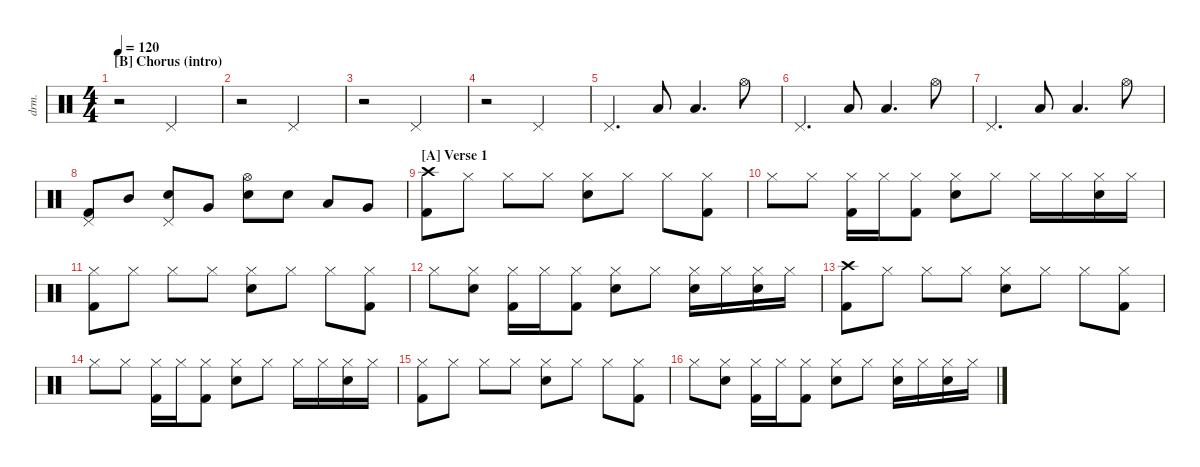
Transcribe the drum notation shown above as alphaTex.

\defaultSystemsLayout 4
\hideDynamics
\bracketExtendMode nobrackets
\track ("Drumkit" "drm.") {instrument percussion}
\staff {score}
\articulation defaults
\ts (4 4)
\section ("B" "Chorus (intro)")
\tempo 120
\clef neutral
\ks c
r.2{dy mf beam Down} "Pedal Hi-Hat (hit)".2{beam Up} |
r.2{beam Down} "Pedal Hi-Hat (hit)".2{beam Up} |
r.2{beam Down} "Pedal Hi-Hat (hit)".2{beam Up} |
r.2{beam Down} "Pedal Hi-Hat (hit)".2{beam Up} |
"Pedal Hi-Hat (hit)".4{d beam Up} "Low Floor Tom (hit)".8{beam Up} "Low Floor Tom (hit)".4{d beam Up} "Hi-Hat (open)".8{beam Down} |
"Pedal Hi-Hat (hit)".4{d beam Up} "Low Floor Tom (hit)".8{beam Up} "Low Floor Tom (hit)".4{d beam Up} "Hi-Hat (open)".8{beam Down} |
"Pedal Hi-Hat (hit)".4{d beam Up} "Low Floor Tom (hit)".8{beam Up} "Low Floor Tom (hit)".4{d beam Up} "Hi-Hat (open)".8{beam Down} |
("Kick (hit) 2" "Pedal Hi-Hat (hit)").8{beam Up} "Mid Tom (hit)".8{beam Up} ("Snare (hit) 2" "Pedal Hi-Hat (hit)").8{beam Up} "Very Low Tom (hit)".8{beam Up} ("Snare (hit) 2" "Hi-Hat (open)").8{beam Down} "Snare (hit) 2".8{beam Down} "Low Tom (hit)".8{beam Up} "Very Low Tom (hit)".8{beam Up} |
\beaming (8 2 2 2 2)
\section ("A" "Verse 1")
("Crash high (hit)" "Kick (hit) 2").8{beam Down} "Hi-Hat (closed)".8{beam Down} "Hi-Hat (closed)".8{beam Down} "Hi-Hat (closed)".8{beam Down} ("Hi-Hat (closed)" "Snare (hit) 2").8{beam Down} "Hi-Hat (closed)".8{beam Down} "Hi-Hat (closed)".8{beam Down} ("Hi-Hat (closed)" "Kick (hit) 2").8{beam Down} |
"Hi-Hat (closed)".8{beam Down} "Hi-Hat (closed)".8{beam Down} ("Hi-Hat (closed)" "Kick (hit) 2").16{beam Down} "Hi-Hat (closed)".16{beam Down} ("Hi-Hat (closed)" "Kick (hit) 2").8{beam Down} ("Hi-Hat (closed)" "Snare (hit) 2").8{beam Down} "Hi-Hat (closed)".8{beam Down} "Hi-Hat (closed)".16{beam Down} "Hi-Hat (closed)".16{beam Down} ("Hi-Hat (closed)" "Snare (hit) 2").16{dy p beam Down} "Hi-Hat (closed)".16{beam Down} |
("Hi-Hat (closed)" "Kick (hit) 2").8{dy mf beam Down} "Hi-Hat (closed)".8{beam Down} "Hi-Hat (closed)".8{beam Down} "Hi-Hat (closed)".8{beam Down} ("Hi-Hat (closed)" "Snare (hit) 2").8{beam Down} "Hi-Hat (closed)".8{beam Down} "Hi-Hat (closed)".8{beam Down} ("Hi-Hat (closed)" "Kick (hit) 2").8{beam Down} |
"Hi-Hat (closed)".8{beam Down} ("Hi-Hat (closed)" "Snare (hit) 2").8{beam Down} ("Hi-Hat (closed)" "Kick (hit) 2").16{beam Down} "Hi-Hat (closed)".16{beam Down} ("Hi-Hat (closed)" "Kick (hit) 2").8{beam Down} ("Hi-Hat (closed)" "Snare (hit) 2").8{beam Down} "Hi-Hat (closed)".8{beam Down} ("Hi-Hat (closed)" "Snare (hit) 2").16{beam Down} "Hi-Hat (closed)".16{beam Down} ("Hi-Hat (closed)" "Snare (hit) 2").16{dy p beam Down} "Hi-Hat (closed)".16{beam Down} |
("Crash high (hit)" "Kick (hit) 2").8{dy mf beam Down} "Hi-Hat (closed)".8{beam Down} "Hi-Hat (closed)".8{beam Down} "Hi-Hat (closed)".8{beam Down} ("Hi-Hat (closed)" "Snare (hit) 2").8{beam Down} "Hi-Hat (closed)".8{beam Down} "Hi-Hat (closed)".8{beam Down} ("Hi-Hat (closed)" "Kick (hit) 2").8{beam Down} |
"Hi-Hat (closed)".8{beam Down} "Hi-Hat (closed)".8{beam Down} ("Hi-Hat (closed)" "Kick (hit) 2").16{beam Down} "Hi-Hat (closed)".16{beam Down} ("Hi-Hat (closed)" "Kick (hit) 2").8{beam Down} ("Hi-Hat (closed)" "Snare (hit) 2").8{beam Down} "Hi-Hat (closed)".8{beam Down} "Hi-Hat (closed)".16{beam Down} "Hi-Hat (closed)".16{beam Down} ("Hi-Hat (closed)" "Snare (hit) 2").16{dy p beam Down} "Hi-Hat (closed)".16{beam Down} |
("Hi-Hat (closed)" "Kick (hit) 2").8{dy mf beam Down} "Hi-Hat (closed)".8{beam Down} "Hi-Hat (closed)".8{beam Down} "Hi-Hat (closed)".8{beam Down} ("Hi-Hat (closed)" "Snare (hit) 2").8{beam Down} "Hi-Hat (closed)".8{beam Down} "Hi-Hat (closed)".8{beam Down} ("Hi-Hat (closed)" "Kick (hit) 2").8{beam Down} |
"Hi-Hat (closed)".8{beam Down} ("Hi-Hat (closed)" "Snare (hit) 2").8{beam Down} ("Hi-Hat (closed)" "Kick (hit) 2").16{beam Down} "Hi-Hat (closed)".16{beam Down} ("Hi-Hat (closed)" "Kick (hit) 2").8{beam Down} ("Hi-Hat (closed)" "Snare (hit) 2").8{beam Down} "Hi-Hat (closed)".8{beam Down} ("Hi-Hat (closed)" "Snare (hit) 2").16{beam Down} "Hi-Hat (closed)".16{beam Down} ("Hi-Hat (closed)" "Snare (hit) 2").16{dy p beam Down} "Hi-Hat (closed)".16{beam Down}
